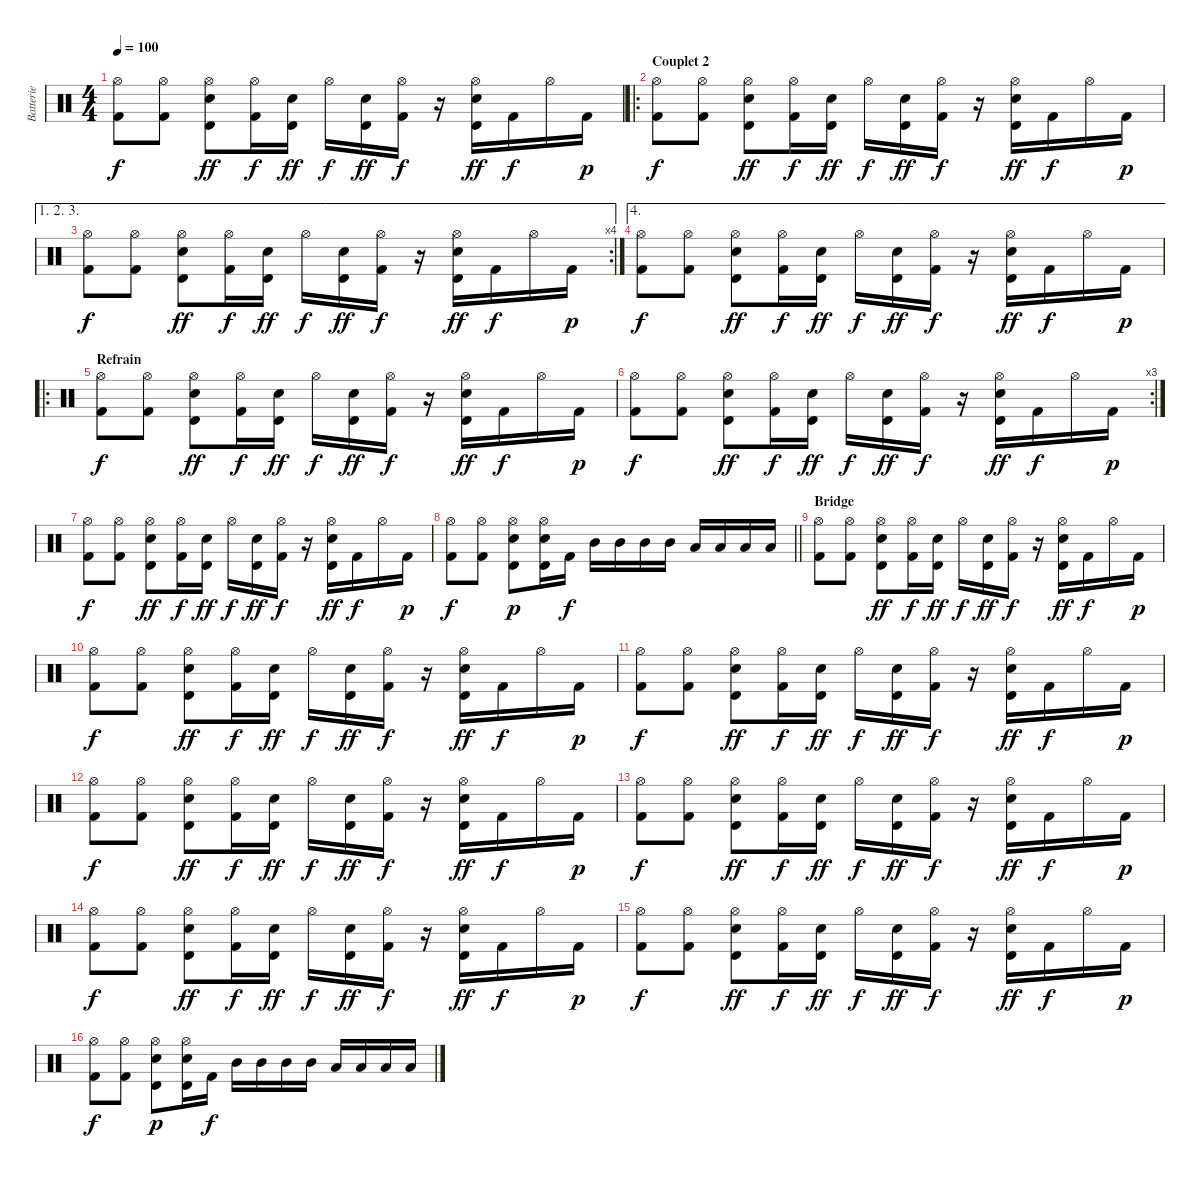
\track ("Batterie" "Batterie") {instrument percussion}
\staff {score}
\articulation defaults
\ts (4 4)
\tempo 100
\clef neutral
\ks c
("Hi-Hat (open)" "Kick (hit) 2").8{dy f} ("Hi-Hat (open)" "Kick (hit) 2").8 ("Hi-Hat (open)" "Timbale high (hit)" "Electric Snare (hit)").8{dy ff} ("Hi-Hat (open)" "Kick (hit) 2").16{dy f} ("Timbale high (hit)" "Electric Snare (hit)").16{dy ff} "Hi-Hat (open)".16{dy f} ("Timbale high (hit)" "Electric Snare (hit)").16{dy ff} ("Hi-Hat (open)" "Kick (hit) 2").16{dy f} r.16 ("Hi-Hat (open)" "Timbale high (hit)" "Electric Snare (hit)").16{dy ff} "Kick (hit) 2".16{dy f} "Hi-Hat (open)".16 "Kick (hit) 2".16{dy p} |
\ro
\section ("" "Couplet 2")
("Hi-Hat (open)" "Kick (hit) 2").8{dy f} ("Hi-Hat (open)" "Kick (hit) 2").8 ("Hi-Hat (open)" "Timbale high (hit)" "Electric Snare (hit)").8{dy ff} ("Hi-Hat (open)" "Kick (hit) 2").16{dy f} ("Timbale high (hit)" "Electric Snare (hit)").16{dy ff} "Hi-Hat (open)".16{dy f} ("Timbale high (hit)" "Electric Snare (hit)").16{dy ff} ("Hi-Hat (open)" "Kick (hit) 2").16{dy f} r.16 ("Hi-Hat (open)" "Timbale high (hit)" "Electric Snare (hit)").16{dy ff} "Kick (hit) 2".16{dy f} "Hi-Hat (open)".16 "Kick (hit) 2".16{dy p} |
\ae (1 2 3)
\rc 4
("Hi-Hat (open)" "Kick (hit) 2").8{dy f} ("Hi-Hat (open)" "Kick (hit) 2").8 ("Hi-Hat (open)" "Timbale high (hit)" "Electric Snare (hit)").8{dy ff} ("Hi-Hat (open)" "Kick (hit) 2").16{dy f} ("Timbale high (hit)" "Electric Snare (hit)").16{dy ff} "Hi-Hat (open)".16{dy f} ("Timbale high (hit)" "Electric Snare (hit)").16{dy ff} ("Hi-Hat (open)" "Kick (hit) 2").16{dy f} r.16 ("Hi-Hat (open)" "Timbale high (hit)" "Electric Snare (hit)").16{dy ff} "Kick (hit) 2".16{dy f} "Hi-Hat (open)".16 "Kick (hit) 2".16{dy p} |
\ae 4
("Hi-Hat (open)" "Kick (hit) 2").8{dy f} ("Hi-Hat (open)" "Kick (hit) 2").8 ("Hi-Hat (open)" "Timbale high (hit)" "Electric Snare (hit)").8{dy ff} ("Hi-Hat (open)" "Kick (hit) 2").16{dy f} ("Timbale high (hit)" "Electric Snare (hit)").16{dy ff} "Hi-Hat (open)".16{dy f} ("Timbale high (hit)" "Electric Snare (hit)").16{dy ff} ("Hi-Hat (open)" "Kick (hit) 2").16{dy f} r.16 ("Hi-Hat (open)" "Timbale high (hit)" "Electric Snare (hit)").16{dy ff} "Kick (hit) 2".16{dy f} "Hi-Hat (open)".16 "Kick (hit) 2".16{dy p} |
\ro
\section ("" "Refrain")
("Hi-Hat (open)" "Kick (hit) 2").8{dy f} ("Hi-Hat (open)" "Kick (hit) 2").8 ("Hi-Hat (open)" "Timbale high (hit)" "Electric Snare (hit)").8{dy ff} ("Hi-Hat (open)" "Kick (hit) 2").16{dy f} ("Timbale high (hit)" "Electric Snare (hit)").16{dy ff} "Hi-Hat (open)".16{dy f} ("Timbale high (hit)" "Electric Snare (hit)").16{dy ff} ("Hi-Hat (open)" "Kick (hit) 2").16{dy f} r.16 ("Hi-Hat (open)" "Timbale high (hit)" "Electric Snare (hit)").16{dy ff} "Kick (hit) 2".16{dy f} "Hi-Hat (open)".16 "Kick (hit) 2".16{dy p} |
\rc 3
("Hi-Hat (open)" "Kick (hit) 2").8{dy f} ("Hi-Hat (open)" "Kick (hit) 2").8 ("Hi-Hat (open)" "Timbale high (hit)" "Electric Snare (hit)").8{dy ff} ("Hi-Hat (open)" "Kick (hit) 2").16{dy f} ("Timbale high (hit)" "Electric Snare (hit)").16{dy ff} "Hi-Hat (open)".16{dy f} ("Timbale high (hit)" "Electric Snare (hit)").16{dy ff} ("Hi-Hat (open)" "Kick (hit) 2").16{dy f} r.16 ("Hi-Hat (open)" "Timbale high (hit)" "Electric Snare (hit)").16{dy ff} "Kick (hit) 2".16{dy f} "Hi-Hat (open)".16 "Kick (hit) 2".16{dy p} |
("Hi-Hat (open)" "Kick (hit) 2").8{dy f} ("Hi-Hat (open)" "Kick (hit) 2").8 ("Hi-Hat (open)" "Timbale high (hit)" "Electric Snare (hit)").8{dy ff} ("Hi-Hat (open)" "Kick (hit) 2").16{dy f} ("Timbale high (hit)" "Electric Snare (hit)").16{dy ff} "Hi-Hat (open)".16{dy f} ("Timbale high (hit)" "Electric Snare (hit)").16{dy ff} ("Hi-Hat (open)" "Kick (hit) 2").16{dy f} r.16 ("Hi-Hat (open)" "Timbale high (hit)" "Electric Snare (hit)").16{dy ff} "Kick (hit) 2".16{dy f} "Hi-Hat (open)".16 "Kick (hit) 2".16{dy p} |
\barLineRight lightlight
("Hi-Hat (open)" "Kick (hit) 2").8{dy f} ("Hi-Hat (open)" "Kick (hit) 2").8 ("Hi-Hat (open)" "Timbale high (hit)" "Electric Snare (hit)").8{dy p} ("Hi-Hat (open)" "Timbale high (hit)" "Electric Snare (hit)").16 "Kick (hit) 2".16{dy f} "Mid Tom (hit)".16 "Mid Tom (hit)".16 "Mid Tom (hit)".16 "Mid Tom (hit)".16 "Low Tom (hit)".16 "Low Tom (hit)".16 "Low Tom (hit)".16 "Low Tom (hit)".16 |
\section ("" "Bridge")
("Hi-Hat (open)" "Kick (hit) 2").8 ("Hi-Hat (open)" "Kick (hit) 2").8 ("Hi-Hat (open)" "Timbale high (hit)" "Electric Snare (hit)").8{dy ff} ("Hi-Hat (open)" "Kick (hit) 2").16{dy f} ("Timbale high (hit)" "Electric Snare (hit)").16{dy ff} "Hi-Hat (open)".16{dy f} ("Timbale high (hit)" "Electric Snare (hit)").16{dy ff} ("Hi-Hat (open)" "Kick (hit) 2").16{dy f} r.16 ("Hi-Hat (open)" "Timbale high (hit)" "Electric Snare (hit)").16{dy ff} "Kick (hit) 2".16{dy f} "Hi-Hat (open)".16 "Kick (hit) 2".16{dy p} |
("Hi-Hat (open)" "Kick (hit) 2").8{dy f} ("Hi-Hat (open)" "Kick (hit) 2").8 ("Hi-Hat (open)" "Timbale high (hit)" "Electric Snare (hit)").8{dy ff} ("Hi-Hat (open)" "Kick (hit) 2").16{dy f} ("Timbale high (hit)" "Electric Snare (hit)").16{dy ff} "Hi-Hat (open)".16{dy f} ("Timbale high (hit)" "Electric Snare (hit)").16{dy ff} ("Hi-Hat (open)" "Kick (hit) 2").16{dy f} r.16 ("Hi-Hat (open)" "Timbale high (hit)" "Electric Snare (hit)").16{dy ff} "Kick (hit) 2".16{dy f} "Hi-Hat (open)".16 "Kick (hit) 2".16{dy p} |
("Hi-Hat (open)" "Kick (hit) 2").8{dy f} ("Hi-Hat (open)" "Kick (hit) 2").8 ("Hi-Hat (open)" "Timbale high (hit)" "Electric Snare (hit)").8{dy ff} ("Hi-Hat (open)" "Kick (hit) 2").16{dy f} ("Timbale high (hit)" "Electric Snare (hit)").16{dy ff} "Hi-Hat (open)".16{dy f} ("Timbale high (hit)" "Electric Snare (hit)").16{dy ff} ("Hi-Hat (open)" "Kick (hit) 2").16{dy f} r.16 ("Hi-Hat (open)" "Timbale high (hit)" "Electric Snare (hit)").16{dy ff} "Kick (hit) 2".16{dy f} "Hi-Hat (open)".16 "Kick (hit) 2".16{dy p} |
("Hi-Hat (open)" "Kick (hit) 2").8{dy f} ("Hi-Hat (open)" "Kick (hit) 2").8 ("Hi-Hat (open)" "Timbale high (hit)" "Electric Snare (hit)").8{dy ff} ("Hi-Hat (open)" "Kick (hit) 2").16{dy f} ("Timbale high (hit)" "Electric Snare (hit)").16{dy ff} "Hi-Hat (open)".16{dy f} ("Timbale high (hit)" "Electric Snare (hit)").16{dy ff} ("Hi-Hat (open)" "Kick (hit) 2").16{dy f} r.16 ("Hi-Hat (open)" "Timbale high (hit)" "Electric Snare (hit)").16{dy ff} "Kick (hit) 2".16{dy f} "Hi-Hat (open)".16 "Kick (hit) 2".16{dy p} |
("Hi-Hat (open)" "Kick (hit) 2").8{dy f} ("Hi-Hat (open)" "Kick (hit) 2").8 ("Hi-Hat (open)" "Timbale high (hit)" "Electric Snare (hit)").8{dy ff} ("Hi-Hat (open)" "Kick (hit) 2").16{dy f} ("Timbale high (hit)" "Electric Snare (hit)").16{dy ff} "Hi-Hat (open)".16{dy f} ("Timbale high (hit)" "Electric Snare (hit)").16{dy ff} ("Hi-Hat (open)" "Kick (hit) 2").16{dy f} r.16 ("Hi-Hat (open)" "Timbale high (hit)" "Electric Snare (hit)").16{dy ff} "Kick (hit) 2".16{dy f} "Hi-Hat (open)".16 "Kick (hit) 2".16{dy p} |
("Hi-Hat (open)" "Kick (hit) 2").8{dy f} ("Hi-Hat (open)" "Kick (hit) 2").8 ("Hi-Hat (open)" "Timbale high (hit)" "Electric Snare (hit)").8{dy ff} ("Hi-Hat (open)" "Kick (hit) 2").16{dy f} ("Timbale high (hit)" "Electric Snare (hit)").16{dy ff} "Hi-Hat (open)".16{dy f} ("Timbale high (hit)" "Electric Snare (hit)").16{dy ff} ("Hi-Hat (open)" "Kick (hit) 2").16{dy f} r.16 ("Hi-Hat (open)" "Timbale high (hit)" "Electric Snare (hit)").16{dy ff} "Kick (hit) 2".16{dy f} "Hi-Hat (open)".16 "Kick (hit) 2".16{dy p} |
("Hi-Hat (open)" "Kick (hit) 2").8{dy f} ("Hi-Hat (open)" "Kick (hit) 2").8 ("Hi-Hat (open)" "Timbale high (hit)" "Electric Snare (hit)").8{dy ff} ("Hi-Hat (open)" "Kick (hit) 2").16{dy f} ("Timbale high (hit)" "Electric Snare (hit)").16{dy ff} "Hi-Hat (open)".16{dy f} ("Timbale high (hit)" "Electric Snare (hit)").16{dy ff} ("Hi-Hat (open)" "Kick (hit) 2").16{dy f} r.16 ("Hi-Hat (open)" "Timbale high (hit)" "Electric Snare (hit)").16{dy ff} "Kick (hit) 2".16{dy f} "Hi-Hat (open)".16 "Kick (hit) 2".16{dy p} |
("Hi-Hat (open)" "Kick (hit) 2").8{dy f} ("Hi-Hat (open)" "Kick (hit) 2").8 ("Hi-Hat (open)" "Timbale high (hit)" "Electric Snare (hit)").8{dy p} ("Hi-Hat (open)" "Timbale high (hit)" "Electric Snare (hit)").16 "Kick (hit) 2".16{dy f} "Mid Tom (hit)".16 "Mid Tom (hit)".16 "Mid Tom (hit)".16 "Mid Tom (hit)".16 "Low Tom (hit)".16 "Low Tom (hit)".16 "Low Tom (hit)".16 "Low Tom (hit)".16
